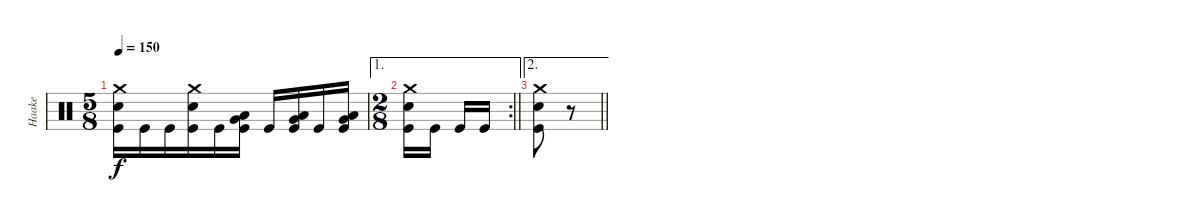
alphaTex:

\track ("Haake" "Haake") {instrument percussion}
\staff {score}
\articulation defaults
\ts (5 8)
\tempo 150
\clef neutral
\ks c
("Crash medium (hit)" "Snare (hit) 2" "Kick (hit)").16{dy f} "Kick (hit)".16 "Kick (hit)".16 ("Crash medium (hit)" "Snare (hit) 2" "Kick (hit)").16 "Kick (hit)".16 ("Low Tom (hit)" "Very Low Tom (hit)" "Kick (hit)").16 "Kick (hit)".16 ("Low Tom (hit)" "Very Low Tom (hit)" "Kick (hit)").16 "Kick (hit)".16 ("Low Tom (hit)" "Very Low Tom (hit)" "Kick (hit)").16 |
\ae 1
\rc 2
\ts (2 8)
\barLineRight lightlight
("Crash medium (hit)" "Snare (hit) 2" "Kick (hit)").16 "Kick (hit)".16 "Kick (hit)".16 "Kick (hit)".16 |
\ae 2
\barLineRight lightlight
("Crash medium (hit)" "Snare (hit) 2" "Kick (hit)").8 r.8
